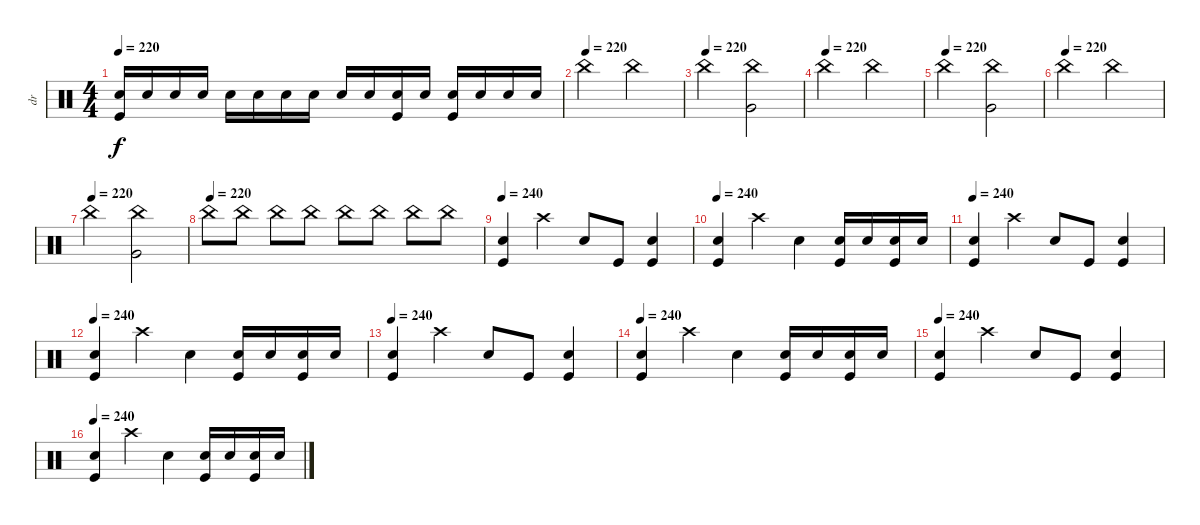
\track ("dr" "dr") {instrument percussion}
\staff {score}
\articulation defaults
\ts (4 4)
\tempo 220
\clef neutral
\ks c
("Snare (hit) 2" "Kick (hit)").16{dy f} "Snare (hit) 2".16 "Snare (hit) 2".16 "Snare (hit) 2".16 "Snare (hit) 2".16 "Snare (hit) 2".16 "Snare (hit) 2".16 "Snare (hit) 2".16 "Electric Snare (hit)".16 "Electric Snare (hit)".16 ("Electric Snare (hit)" "Kick (hit)").16 "Electric Snare (hit)".16 ("Electric Snare (hit)" "Kick (hit)").16 "Electric Snare (hit)".16 "Electric Snare (hit)".16 "Electric Snare (hit)".16 |
\tempo (220)
"China (hit)".2 "China (hit)".2 |
\tempo (220)
"China (hit)".2 ("China (hit)" "Very Low Tom (hit)").2 |
\tempo (220)
"China (hit)".2 "China (hit)".2 |
\tempo (220)
"China (hit)".2 ("China (hit)" "Very Low Tom (hit)").2 |
\tempo (220)
"China (hit)".2 "China (hit)".2 |
\tempo (220)
"China (hit)".2 ("China (hit)" "Very Low Tom (hit)").2 |
\tempo (220)
"China (hit)".8 "China (hit)".8 "China (hit)".8 "China (hit)".8 "China (hit)".8 "China (hit)".8 "China (hit)".8 "China (hit)".8 |
\tempo 240
("Snare (hit) 2" "Kick (hit)").4 "Crash high (hit)".4 "Snare (hit) 2".8 "Kick (hit)".8 ("Snare (hit) 2" "Kick (hit)").4 |
\tempo 240
("Snare (hit) 2" "Kick (hit)").4 "Crash high (hit)".4 "Snare (hit) 2".4 ("Snare (hit) 2" "Kick (hit)").16 "Snare (hit) 2".16 ("Snare (hit) 2" "Kick (hit)").16 "Snare (hit) 2".16 |
\tempo 240
("Snare (hit) 2" "Kick (hit)").4 "Crash high (hit)".4 "Snare (hit) 2".8 "Kick (hit)".8 ("Snare (hit) 2" "Kick (hit)").4 |
\tempo 240
("Snare (hit) 2" "Kick (hit)").4 "Crash high (hit)".4 "Snare (hit) 2".4 ("Snare (hit) 2" "Kick (hit)").16 "Snare (hit) 2".16 ("Snare (hit) 2" "Kick (hit)").16 "Snare (hit) 2".16 |
\tempo 240
("Snare (hit) 2" "Kick (hit)").4 "Crash high (hit)".4 "Snare (hit) 2".8 "Kick (hit)".8 ("Snare (hit) 2" "Kick (hit)").4 |
\tempo 240
("Snare (hit) 2" "Kick (hit)").4 "Crash high (hit)".4 "Snare (hit) 2".4 ("Snare (hit) 2" "Kick (hit)").16 "Snare (hit) 2".16 ("Snare (hit) 2" "Kick (hit)").16 "Snare (hit) 2".16 |
\tempo 240
("Snare (hit) 2" "Kick (hit)").4 "Crash high (hit)".4 "Snare (hit) 2".8 "Kick (hit)".8 ("Snare (hit) 2" "Kick (hit)").4 |
\tempo 240
("Snare (hit) 2" "Kick (hit)").4 "Crash high (hit)".4 "Snare (hit) 2".4 ("Snare (hit) 2" "Kick (hit)").16 "Snare (hit) 2".16 ("Snare (hit) 2" "Kick (hit)").16 "Snare (hit) 2".16
